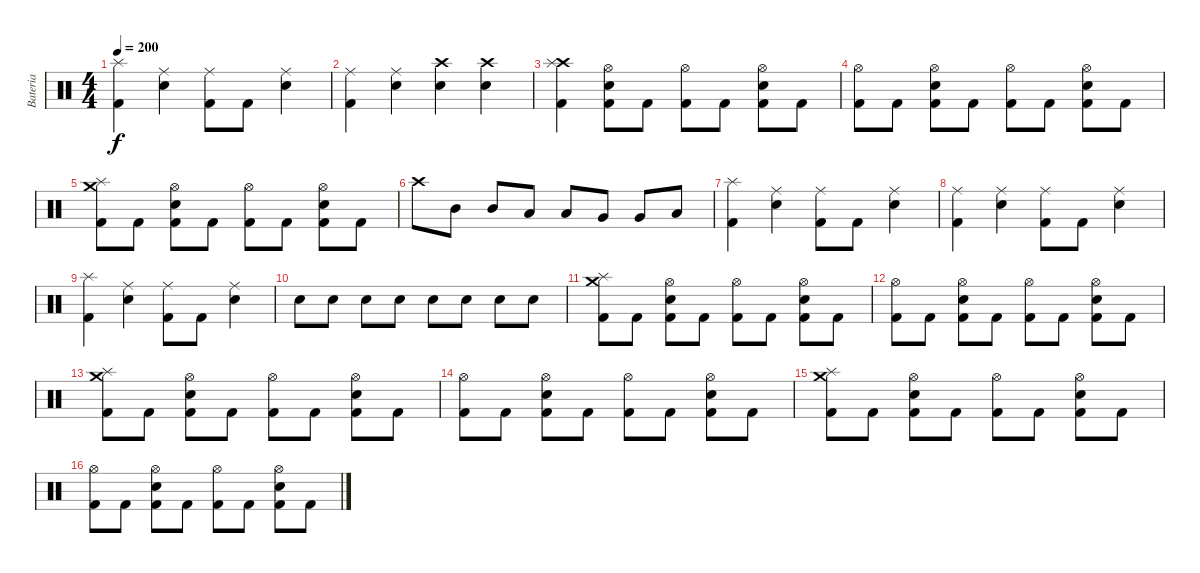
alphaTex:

\track ("Bateria " "Bateria ") {instrument percussion}
\staff {score}
\articulation defaults
\ts (4 4)
\tempo 200
\clef neutral
\ks c
("Kick (hit) 2" "Splash (hit)").4{dy f} ("Electric Snare (hit)" "Ride (middle)").4 ("Kick (hit) 2" "Ride (middle)").8 "Kick (hit) 2".8 ("Electric Snare (hit)" "Ride (middle)").4 |
("Kick (hit) 2" "Ride (middle)").4 ("Electric Snare (hit)" "Ride (middle)").4 ("Electric Snare (hit)" "Crash high (hit)").4 ("Electric Snare (hit)" "Crash high (hit)").4 |
("Kick (hit) 2" "Crash high (hit)" "Splash (hit)").4 ("Kick (hit) 2" "Electric Snare (hit)" "Hi-Hat (open)").8 "Kick (hit) 2".8 ("Kick (hit) 2" "Hi-Hat (open)").8 "Kick (hit) 2".8 ("Kick (hit) 2" "Electric Snare (hit)" "Hi-Hat (open)").8 "Kick (hit) 2".8 |
("Kick (hit) 2" "Hi-Hat (open)").8 "Kick (hit) 2".8 ("Kick (hit) 2" "Electric Snare (hit)" "Hi-Hat (open)").8 "Kick (hit) 2".8 ("Kick (hit) 2" "Hi-Hat (open)").8 "Kick (hit) 2".8 ("Kick (hit) 2" "Electric Snare (hit)" "Hi-Hat (open)").8 "Kick (hit) 2".8 |
("Kick (hit) 2" "Crash medium (hit)" "Splash (hit)").8 "Kick (hit) 2".8 ("Kick (hit) 2" "Electric Snare (hit)" "Hi-Hat (open)").8 "Kick (hit) 2".8 ("Kick (hit) 2" "Hi-Hat (open)").8 "Kick (hit) 2".8 ("Kick (hit) 2" "Electric Snare (hit)" "Hi-Hat (open)").8 "Kick (hit) 2".8 |
"Crash high (hit)".8 "Mid Tom (hit)".8 "Mid Tom (hit)".8 "Low Tom (hit)".8 "Low Tom (hit)".8 "Very Low Tom (hit)".8 "Very Low Tom (hit)".8 "Low Floor Tom (hit)".8 |
("Kick (hit) 2" "Splash (hit)").4 ("Electric Snare (hit)" "Ride (middle)").4 ("Kick (hit) 2" "Ride (middle)").8 "Kick (hit) 2".8 ("Electric Snare (hit)" "Ride (middle)").4 |
("Kick (hit) 2" "Ride (middle)").4 ("Electric Snare (hit)" "Ride (middle)").4 ("Kick (hit) 2" "Ride (middle)").8 "Kick (hit) 2".8 ("Electric Snare (hit)" "Ride (middle)").4 |
("Kick (hit) 2" "Splash (hit)").4 ("Electric Snare (hit)" "Ride (middle)").4 ("Kick (hit) 2" "Ride (middle)").8 "Kick (hit) 2".8 ("Electric Snare (hit)" "Ride (middle)").4 |
"Electric Snare (hit)".8 "Electric Snare (hit)".8 "Electric Snare (hit)".8 "Electric Snare (hit)".8 "Electric Snare (hit)".8 "Electric Snare (hit)".8 "Electric Snare (hit)".8 "Electric Snare (hit)".8 |
("Kick (hit) 2" "Crash medium (hit)" "Splash (hit)").8 "Kick (hit) 2".8 ("Kick (hit) 2" "Electric Snare (hit)" "Hi-Hat (open)").8 "Kick (hit) 2".8 ("Kick (hit) 2" "Hi-Hat (open)").8 "Kick (hit) 2".8 ("Kick (hit) 2" "Electric Snare (hit)" "Hi-Hat (open)").8 "Kick (hit) 2".8 |
("Kick (hit) 2" "Hi-Hat (open)").8 "Kick (hit) 2".8 ("Kick (hit) 2" "Electric Snare (hit)" "Hi-Hat (open)").8 "Kick (hit) 2".8 ("Kick (hit) 2" "Hi-Hat (open)").8 "Kick (hit) 2".8 ("Kick (hit) 2" "Electric Snare (hit)" "Hi-Hat (open)").8 "Kick (hit) 2".8 |
("Kick (hit) 2" "Crash medium (hit)" "Splash (hit)").8 "Kick (hit) 2".8 ("Kick (hit) 2" "Electric Snare (hit)" "Hi-Hat (open)").8 "Kick (hit) 2".8 ("Kick (hit) 2" "Hi-Hat (open)").8 "Kick (hit) 2".8 ("Kick (hit) 2" "Electric Snare (hit)" "Hi-Hat (open)").8 "Kick (hit) 2".8 |
("Kick (hit) 2" "Hi-Hat (open)").8 "Kick (hit) 2".8 ("Kick (hit) 2" "Electric Snare (hit)" "Hi-Hat (open)").8 "Kick (hit) 2".8 ("Kick (hit) 2" "Hi-Hat (open)").8 "Kick (hit) 2".8 ("Kick (hit) 2" "Electric Snare (hit)" "Hi-Hat (open)").8 "Kick (hit) 2".8 |
("Kick (hit) 2" "Crash medium (hit)" "Splash (hit)").8 "Kick (hit) 2".8 ("Kick (hit) 2" "Electric Snare (hit)" "Hi-Hat (open)").8 "Kick (hit) 2".8 ("Kick (hit) 2" "Hi-Hat (open)").8 "Kick (hit) 2".8 ("Kick (hit) 2" "Electric Snare (hit)" "Hi-Hat (open)").8 "Kick (hit) 2".8 |
("Kick (hit) 2" "Hi-Hat (open)").8 "Kick (hit) 2".8 ("Kick (hit) 2" "Electric Snare (hit)" "Hi-Hat (open)").8 "Kick (hit) 2".8 ("Kick (hit) 2" "Hi-Hat (open)").8 "Kick (hit) 2".8 ("Kick (hit) 2" "Electric Snare (hit)" "Hi-Hat (open)").8 "Kick (hit) 2".8
